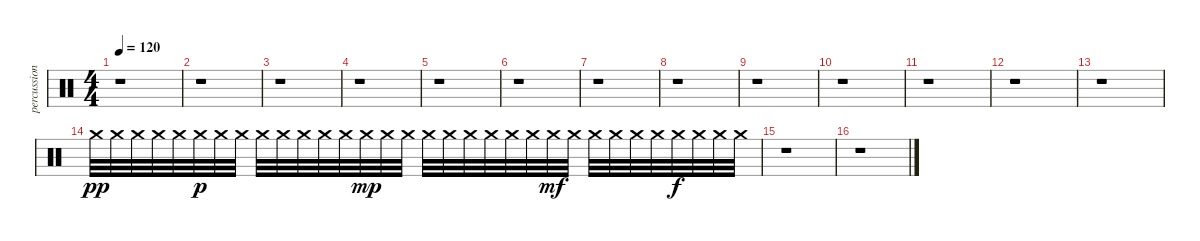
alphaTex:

\track ("percussion" "percussion") {instrument percussion}
\staff {score}
\articulation defaults
\ts (4 4)
\tempo 120
\clef neutral
\ks c
r.1{dy f} |
r.1 |
r.1 |
r.1 |
r.1 |
r.1 |
r.1 |
r.1 |
r.1 |
r.1 |
r.1 |
r.1 |
r.1 |
"Crash medium (hit)".32{dy pp} "Crash medium (hit)".32 "Crash medium (hit)".32 "Crash medium (hit)".32 "Crash medium (hit)".32 "Crash medium (hit)".32{dy p} "Crash medium (hit)".32 "Crash medium (hit)".32 "Crash medium (hit)".32 "Crash medium (hit)".32 "Crash medium (hit)".32 "Crash medium (hit)".32 "Crash medium (hit)".32 "Crash medium (hit)".32{dy mp} "Crash medium (hit)".32 "Crash medium (hit)".32 "Crash medium (hit)".32 "Crash medium (hit)".32 "Crash medium (hit)".32 "Crash medium (hit)".32 "Crash medium (hit)".32 "Crash medium (hit)".32 "Crash medium (hit)".32{dy mf} "Crash medium (hit)".32 "Crash medium (hit)".32 "Crash medium (hit)".32 "Crash medium (hit)".32 "Crash medium (hit)".32 "Crash medium (hit)".32{dy f} "Crash medium (hit)".32 "Crash medium (hit)".32 "Crash medium (hit)".32 |
r.1 |
r.1
